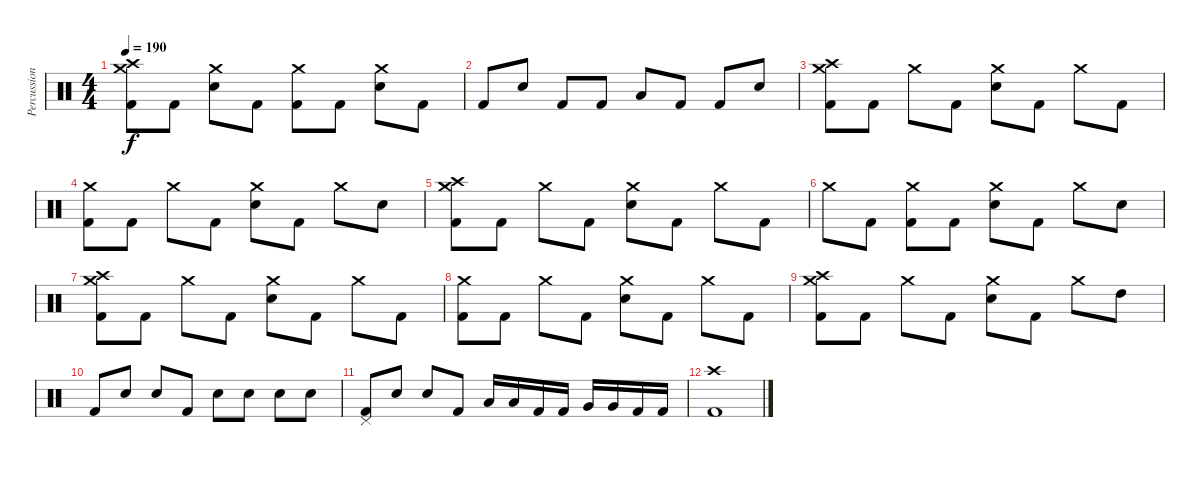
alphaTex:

\track ("Percussion" "Percussion") {instrument percussion}
\staff {score}
\articulation defaults
\ts (4 4)
\tempo 190
\clef neutral
\ks c
("Crash high (hit)" "Crash medium (hit)" "Kick (hit) 2").8{dy f} "Kick (hit) 2".8 ("Crash medium (hit)" "Electric Snare (hit)").8 "Kick (hit) 2".8 ("Crash medium (hit)" "Kick (hit) 2").8 "Kick (hit) 2".8 ("Crash medium (hit)" "Electric Snare (hit)").8 "Kick (hit) 2".8 |
"Kick (hit) 2".8 "Electric Snare (hit)".8 "Kick (hit) 2".8 "Kick (hit) 2".8 "Low Tom (hit)".8 "Kick (hit) 2".8 "Kick (hit) 2".8 "Electric Snare (hit)".8 |
("Crash high (hit)" "Crash medium (hit)" "Kick (hit) 2").8 "Kick (hit) 2".8 "Crash medium (hit)".8 "Kick (hit) 2".8 ("Crash medium (hit)" "Electric Snare (hit)").8 "Kick (hit) 2".8 "Crash medium (hit)".8 "Kick (hit) 2".8 |
("Crash medium (hit)" "Kick (hit) 2").8 "Kick (hit) 2".8 "Crash medium (hit)".8 "Kick (hit) 2".8 ("Crash medium (hit)" "Electric Snare (hit)").8 "Kick (hit) 2".8 "Crash medium (hit)".8 "Electric Snare (hit)".8 |
("Crash high (hit)" "Crash medium (hit)" "Kick (hit) 2").8 "Kick (hit) 2".8 "Crash medium (hit)".8 "Kick (hit) 2".8 ("Crash medium (hit)" "Electric Snare (hit)").8 "Kick (hit) 2".8 "Crash medium (hit)".8 "Kick (hit) 2".8 |
"Crash medium (hit)".8 "Kick (hit) 2".8 ("Crash medium (hit)" "Kick (hit) 2").8 "Kick (hit) 2".8 ("Crash medium (hit)" "Electric Snare (hit)").8 "Kick (hit) 2".8 "Crash medium (hit)".8 "Electric Snare (hit)".8 |
("Crash high (hit)" "Crash medium (hit)" "Kick (hit) 2").8 "Kick (hit) 2".8 "Crash medium (hit)".8 "Kick (hit) 2".8 ("Crash medium (hit)" "Electric Snare (hit)").8 "Kick (hit) 2".8 "Crash medium (hit)".8 "Kick (hit) 2".8 |
("Crash medium (hit)" "Kick (hit) 2").8 "Kick (hit) 2".8 "Crash medium (hit)".8 "Kick (hit) 2".8 ("Crash medium (hit)" "Electric Snare (hit)").8 "Kick (hit) 2".8 "Crash medium (hit)".8 "Kick (hit) 2".8 |
("Crash high (hit)" "Crash medium (hit)" "Kick (hit) 2").8 "Kick (hit) 2".8 "Crash medium (hit)".8 "Kick (hit) 2".8 ("Crash medium (hit)" "Electric Snare (hit)").8 "Kick (hit) 2".8 "Crash medium (hit)".8 "High Tom (hit)".8 |
"Kick (hit) 2".8 "Electric Snare (hit)".8 "Electric Snare (hit)".8 "Kick (hit) 2".8 "Electric Snare (hit)".8 "Electric Snare (hit)".8 "Electric Snare (hit)".8 "Electric Snare (hit)".8 |
("Pedal Hi-Hat (hit)" "Kick (hit) 2").8 "Electric Snare (hit)".8 "Electric Snare (hit)".8 "Kick (hit) 2".8 "Low Tom (hit)".16 "Low Tom (hit)".16 "Kick (hit) 2".16 "Kick (hit) 2".16 "Very Low Tom (hit)".16 "Very Low Tom (hit)".16 "Kick (hit) 2".16 "Kick (hit) 2".16 |
("Crash high (hit)" "Kick (hit) 2").1
